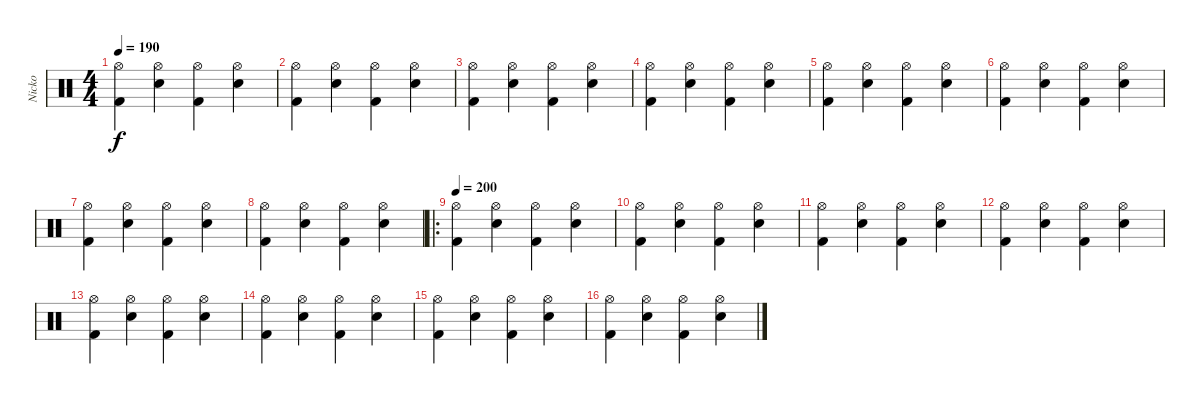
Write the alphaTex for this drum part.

\track ("Nicko" "Nicko") {instrument percussion}
\staff {score}
\articulation defaults
\ts (4 4)
\tempo 190
\clef neutral
\ks c
("Hi-Hat (open)" "Kick (hit) 2").4{dy f} ("Hi-Hat (open)" "Electric Snare (hit)").4 ("Hi-Hat (open)" "Kick (hit) 2").4 ("Hi-Hat (open)" "Electric Snare (hit)").4 |
("Hi-Hat (open)" "Kick (hit) 2").4 ("Hi-Hat (open)" "Electric Snare (hit)").4 ("Hi-Hat (open)" "Kick (hit) 2").4 ("Hi-Hat (open)" "Electric Snare (hit)").4 |
("Hi-Hat (open)" "Kick (hit) 2").4 ("Hi-Hat (open)" "Electric Snare (hit)").4 ("Hi-Hat (open)" "Kick (hit) 2").4 ("Hi-Hat (open)" "Electric Snare (hit)").4 |
("Hi-Hat (open)" "Kick (hit) 2").4 ("Hi-Hat (open)" "Electric Snare (hit)").4 ("Hi-Hat (open)" "Kick (hit) 2").4 ("Hi-Hat (open)" "Electric Snare (hit)").4 |
("Hi-Hat (open)" "Kick (hit) 2").4 ("Hi-Hat (open)" "Electric Snare (hit)").4 ("Hi-Hat (open)" "Kick (hit) 2").4 ("Hi-Hat (open)" "Electric Snare (hit)").4 |
("Hi-Hat (open)" "Kick (hit) 2").4 ("Hi-Hat (open)" "Electric Snare (hit)").4 ("Hi-Hat (open)" "Kick (hit) 2").4 ("Hi-Hat (open)" "Electric Snare (hit)").4 |
("Hi-Hat (open)" "Kick (hit) 2").4 ("Hi-Hat (open)" "Electric Snare (hit)").4 ("Hi-Hat (open)" "Kick (hit) 2").4 ("Hi-Hat (open)" "Electric Snare (hit)").4 |
("Hi-Hat (open)" "Kick (hit) 2").4 ("Hi-Hat (open)" "Electric Snare (hit)").4 ("Hi-Hat (open)" "Kick (hit) 2").4 ("Hi-Hat (open)" "Electric Snare (hit)").4 |
\ro
\tempo 200
("Hi-Hat (open)" "Kick (hit) 2").4 ("Hi-Hat (open)" "Electric Snare (hit)").4 ("Hi-Hat (open)" "Kick (hit) 2").4 ("Hi-Hat (open)" "Electric Snare (hit)").4 |
("Hi-Hat (open)" "Kick (hit) 2").4 ("Hi-Hat (open)" "Electric Snare (hit)").4 ("Hi-Hat (open)" "Kick (hit) 2").4 ("Hi-Hat (open)" "Electric Snare (hit)").4 |
("Hi-Hat (open)" "Kick (hit) 2").4 ("Hi-Hat (open)" "Electric Snare (hit)").4 ("Hi-Hat (open)" "Kick (hit) 2").4 ("Hi-Hat (open)" "Electric Snare (hit)").4 |
("Hi-Hat (open)" "Kick (hit) 2").4 ("Hi-Hat (open)" "Electric Snare (hit)").4 ("Hi-Hat (open)" "Kick (hit) 2").4 ("Hi-Hat (open)" "Electric Snare (hit)").4 |
("Hi-Hat (open)" "Kick (hit) 2").4 ("Hi-Hat (open)" "Electric Snare (hit)").4 ("Hi-Hat (open)" "Kick (hit) 2").4 ("Hi-Hat (open)" "Electric Snare (hit)").4 |
("Hi-Hat (open)" "Kick (hit) 2").4 ("Hi-Hat (open)" "Electric Snare (hit)").4 ("Hi-Hat (open)" "Kick (hit) 2").4 ("Hi-Hat (open)" "Electric Snare (hit)").4 |
("Hi-Hat (open)" "Kick (hit) 2").4 ("Hi-Hat (open)" "Electric Snare (hit)").4 ("Hi-Hat (open)" "Kick (hit) 2").4 ("Hi-Hat (open)" "Electric Snare (hit)").4 |
("Hi-Hat (open)" "Kick (hit) 2").4 ("Hi-Hat (open)" "Electric Snare (hit)").4 ("Hi-Hat (open)" "Kick (hit) 2").4 ("Hi-Hat (open)" "Electric Snare (hit)").4
